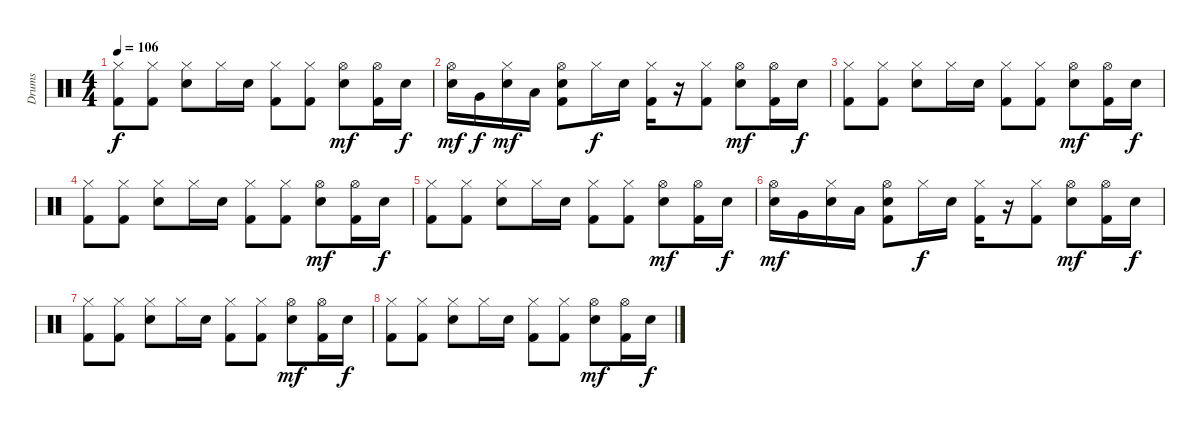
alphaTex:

\track ("Drums" "Drums") {instrument percussion}
\staff {score}
\articulation defaults
\ts (4 4)
\tempo 106
\clef neutral
\ks c
("Hi-Hat (closed)" "Kick (hit) 2").8{dy f} ("Hi-Hat (closed)" "Kick (hit) 2").8 ("Hi-Hat (closed)" "Electric Snare (hit)").8 "Hi-Hat (closed)".16 "Electric Snare (hit)".16 ("Hi-Hat (closed)" "Kick (hit) 2").8 ("Hi-Hat (closed)" "Kick (hit) 2").8 ("Hi-Hat (open)" "Electric Snare (hit)").8{dy mf} ("Hi-Hat (open)" "Kick (hit) 2").16 "Electric Snare (hit)".16{dy f} |
("Hi-Hat (open)" "Electric Snare (hit)").16{dy mf} "Very Low Tom (hit)".16{dy f} ("Hi-Hat (closed)" "Electric Snare (hit)").16{dy mf} "Low Tom (hit)".16 ("Hi-Hat (open)" "Electric Snare (hit)" "Kick (hit) 2").8 "Hi-Hat (closed)".16{dy f} "Electric Snare (hit)".16 ("Hi-Hat (closed)" "Kick (hit) 2").16 r.16 ("Hi-Hat (closed)" "Kick (hit) 2").8 ("Hi-Hat (open)" "Electric Snare (hit)").8{dy mf} ("Hi-Hat (open)" "Kick (hit) 2").16 "Electric Snare (hit)".16{dy f} |
("Hi-Hat (closed)" "Kick (hit) 2").8 ("Hi-Hat (closed)" "Kick (hit) 2").8 ("Hi-Hat (closed)" "Electric Snare (hit)").8 "Hi-Hat (closed)".16 "Electric Snare (hit)".16 ("Hi-Hat (closed)" "Kick (hit) 2").8 ("Hi-Hat (closed)" "Kick (hit) 2").8 ("Hi-Hat (open)" "Electric Snare (hit)").8{dy mf} ("Hi-Hat (open)" "Kick (hit) 2").16 "Electric Snare (hit)".16{dy f} |
("Hi-Hat (closed)" "Kick (hit) 2").8 ("Hi-Hat (closed)" "Kick (hit) 2").8 ("Hi-Hat (closed)" "Electric Snare (hit)").8 "Hi-Hat (closed)".16 "Electric Snare (hit)".16 ("Hi-Hat (closed)" "Kick (hit) 2").8 ("Hi-Hat (closed)" "Kick (hit) 2").8 ("Hi-Hat (open)" "Electric Snare (hit)").8{dy mf} ("Hi-Hat (open)" "Kick (hit) 2").16 "Electric Snare (hit)".16{dy f} |
("Hi-Hat (closed)" "Kick (hit) 2").8 ("Hi-Hat (closed)" "Kick (hit) 2").8 ("Hi-Hat (closed)" "Electric Snare (hit)").8 "Hi-Hat (closed)".16 "Electric Snare (hit)".16 ("Hi-Hat (closed)" "Kick (hit) 2").8 ("Hi-Hat (closed)" "Kick (hit) 2").8 ("Hi-Hat (open)" "Electric Snare (hit)").8{dy mf} ("Hi-Hat (open)" "Kick (hit) 2").16 "Electric Snare (hit)".16{dy f} |
("Hi-Hat (open)" "Electric Snare (hit)").16{dy mf} "Very Low Tom (hit)".16 ("Hi-Hat (closed)" "Electric Snare (hit)").16 "Low Tom (hit)".16 ("Hi-Hat (open)" "Electric Snare (hit)" "Kick (hit) 2").8 "Hi-Hat (closed)".16{dy f} "Electric Snare (hit)".16 ("Hi-Hat (closed)" "Kick (hit) 2").16 r.16 ("Hi-Hat (closed)" "Kick (hit) 2").8 ("Hi-Hat (open)" "Electric Snare (hit)").8{dy mf} ("Hi-Hat (open)" "Kick (hit) 2").16 "Electric Snare (hit)".16{dy f} |
("Hi-Hat (closed)" "Kick (hit) 2").8 ("Hi-Hat (closed)" "Kick (hit) 2").8 ("Hi-Hat (closed)" "Electric Snare (hit)").8 "Hi-Hat (closed)".16 "Electric Snare (hit)".16 ("Hi-Hat (closed)" "Kick (hit) 2").8 ("Hi-Hat (closed)" "Kick (hit) 2").8 ("Hi-Hat (open)" "Electric Snare (hit)").8{dy mf} ("Hi-Hat (open)" "Kick (hit) 2").16 "Electric Snare (hit)".16{dy f} |
("Hi-Hat (closed)" "Kick (hit) 2").8 ("Hi-Hat (closed)" "Kick (hit) 2").8 ("Hi-Hat (closed)" "Electric Snare (hit)").8 "Hi-Hat (closed)".16 "Electric Snare (hit)".16 ("Hi-Hat (closed)" "Kick (hit) 2").8 ("Hi-Hat (closed)" "Kick (hit) 2").8 ("Hi-Hat (open)" "Electric Snare (hit)").8{dy mf} ("Hi-Hat (open)" "Kick (hit) 2").16 "Electric Snare (hit)".16{dy f}
